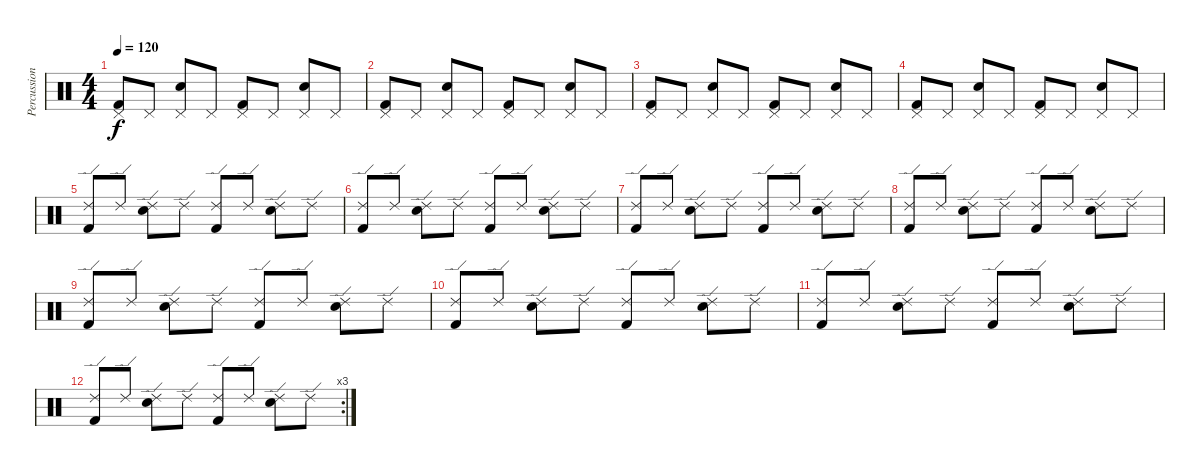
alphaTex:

\track ("Percussion" "Percussion") {instrument percussion}
\staff {score}
\articulation defaults
\ts (4 4)
\tempo 120
\clef neutral
\ks c
("Pedal Hi-Hat (hit)" "Kick (hit) 2").8{dy f} "Pedal Hi-Hat (hit)".8 ("Pedal Hi-Hat (hit)" "Snare (hit) 2").8 "Pedal Hi-Hat (hit)".8 ("Pedal Hi-Hat (hit)" "Kick (hit) 2").8 "Pedal Hi-Hat (hit)".8 ("Pedal Hi-Hat (hit)" "Snare (hit) 2").8 "Pedal Hi-Hat (hit)".8 |
("Pedal Hi-Hat (hit)" "Kick (hit) 2").8 "Pedal Hi-Hat (hit)".8 ("Pedal Hi-Hat (hit)" "Snare (hit) 2").8 "Pedal Hi-Hat (hit)".8 ("Pedal Hi-Hat (hit)" "Kick (hit) 2").8 "Pedal Hi-Hat (hit)".8 ("Pedal Hi-Hat (hit)" "Snare (hit) 2").8 "Pedal Hi-Hat (hit)".8 |
("Pedal Hi-Hat (hit)" "Kick (hit) 2").8 "Pedal Hi-Hat (hit)".8 ("Pedal Hi-Hat (hit)" "Snare (hit) 2").8 "Pedal Hi-Hat (hit)".8 ("Pedal Hi-Hat (hit)" "Kick (hit) 2").8 "Pedal Hi-Hat (hit)".8 ("Pedal Hi-Hat (hit)" "Snare (hit) 2").8 "Pedal Hi-Hat (hit)".8 |
("Pedal Hi-Hat (hit)" "Kick (hit) 2").8 "Pedal Hi-Hat (hit)".8 ("Pedal Hi-Hat (hit)" "Snare (hit) 2").8 "Pedal Hi-Hat (hit)".8 ("Pedal Hi-Hat (hit)" "Kick (hit) 2").8 "Pedal Hi-Hat (hit)".8 ("Pedal Hi-Hat (hit)" "Snare (hit) 2").8 "Pedal Hi-Hat (hit)".8 |
("Ride (edge) 2" "Kick (hit) 2").8 "Ride (edge) 2".8 ("Ride (edge) 2" "Snare (hit) 2").8 "Ride (edge) 2".8 ("Ride (edge) 2" "Kick (hit) 2").8 "Ride (edge) 2".8 ("Ride (edge) 2" "Snare (hit) 2").8 "Ride (edge) 2".8 |
("Ride (edge) 2" "Kick (hit) 2").8 "Ride (edge) 2".8 ("Ride (edge) 2" "Snare (hit) 2").8 "Ride (edge) 2".8 ("Ride (edge) 2" "Kick (hit) 2").8 "Ride (edge) 2".8 ("Ride (edge) 2" "Snare (hit) 2").8 "Ride (edge) 2".8 |
("Ride (edge) 2" "Kick (hit) 2").8 "Ride (edge) 2".8 ("Ride (edge) 2" "Snare (hit) 2").8 "Ride (edge) 2".8 ("Ride (edge) 2" "Kick (hit) 2").8 "Ride (edge) 2".8 ("Ride (edge) 2" "Snare (hit) 2").8 "Ride (edge) 2".8 |
("Ride (edge) 2" "Kick (hit) 2").8 "Ride (edge) 2".8 ("Ride (edge) 2" "Snare (hit) 2").8 "Ride (edge) 2".8 ("Ride (edge) 2" "Kick (hit) 2").8 "Ride (edge) 2".8 ("Ride (edge) 2" "Snare (hit) 2").8 "Ride (edge) 2".8 |
("Ride (edge) 2" "Kick (hit) 2").8 "Ride (edge) 2".8 ("Ride (edge) 2" "Snare (hit) 2").8 "Ride (edge) 2".8 ("Ride (edge) 2" "Kick (hit) 2").8 "Ride (edge) 2".8 ("Ride (edge) 2" "Snare (hit) 2").8 "Ride (edge) 2".8 |
("Ride (edge) 2" "Kick (hit) 2").8 "Ride (edge) 2".8 ("Ride (edge) 2" "Snare (hit) 2").8 "Ride (edge) 2".8 ("Ride (edge) 2" "Kick (hit) 2").8 "Ride (edge) 2".8 ("Ride (edge) 2" "Snare (hit) 2").8 "Ride (edge) 2".8 |
("Ride (edge) 2" "Kick (hit) 2").8 "Ride (edge) 2".8 ("Ride (edge) 2" "Snare (hit) 2").8 "Ride (edge) 2".8 ("Ride (edge) 2" "Kick (hit) 2").8 "Ride (edge) 2".8 ("Ride (edge) 2" "Snare (hit) 2").8 "Ride (edge) 2".8 |
\rc 3
("Ride (edge) 2" "Kick (hit) 2").8 "Ride (edge) 2".8 ("Ride (edge) 2" "Snare (hit) 2").8 "Ride (edge) 2".8 ("Ride (edge) 2" "Kick (hit) 2").8 "Ride (edge) 2".8 ("Ride (edge) 2" "Snare (hit) 2").8 "Ride (edge) 2".8
